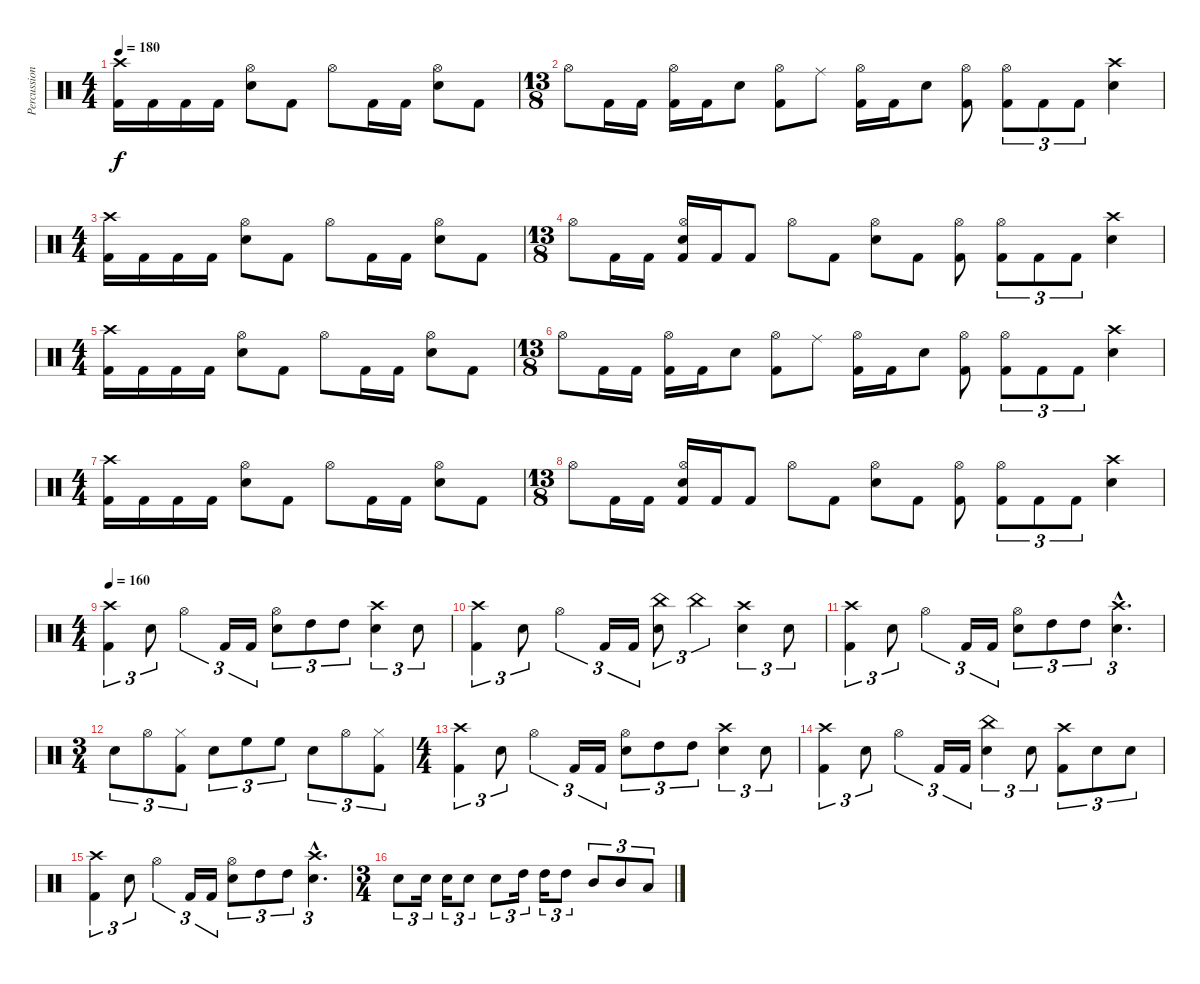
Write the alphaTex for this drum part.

\track ("Percussion" "Percussion") {instrument percussion}
\staff {score}
\articulation defaults
\ts (4 4)
\tempo 180
\clef neutral
\ks c
("Crash high (hit)" "Kick (hit) 2").16{dy f} "Kick (hit) 2".16 "Kick (hit) 2".16 "Kick (hit) 2".16 ("Hi-Hat (open)" "Electric Snare (hit)").8 "Kick (hit) 2".8 "Hi-Hat (open)".8 "Kick (hit) 2".16 "Kick (hit) 2".16 ("Hi-Hat (open)" "Electric Snare (hit)").8 "Kick (hit) 2".8 |
\ts (13 8)
"Hi-Hat (open)".8 "Kick (hit) 2".16 "Kick (hit) 2".16 ("Hi-Hat (open)" "Kick (hit) 2").16 "Kick (hit) 2".16 "Electric Snare (hit)".8 ("Hi-Hat (open)" "Kick (hit) 2").8 "Ride (middle)".8 ("Hi-Hat (open)" "Kick (hit) 2").16 "Kick (hit) 2".16 "Electric Snare (hit)".8 ("Hi-Hat (open)" "Kick (hit) 2").8 ("Hi-Hat (open)" "Kick (hit) 2").8{tu (3 2)} "Kick (hit) 2".8{tu (3 2)} "Kick (hit) 2".8{tu (3 2)} ("Crash high (hit)" "Electric Snare (hit)").4 |
\ts (4 4)
("Crash high (hit)" "Kick (hit) 2").16 "Kick (hit) 2".16 "Kick (hit) 2".16 "Kick (hit) 2".16 ("Hi-Hat (open)" "Electric Snare (hit)").8 "Kick (hit) 2".8 "Hi-Hat (open)".8 "Kick (hit) 2".16 "Kick (hit) 2".16 ("Hi-Hat (open)" "Electric Snare (hit)").8 "Kick (hit) 2".8 |
\ts (13 8)
"Hi-Hat (open)".8 "Kick (hit) 2".16 "Kick (hit) 2".16 ("Hi-Hat (open)" "Electric Snare (hit)" "Kick (hit) 2").16 "Kick (hit) 2".16 "Kick (hit) 2".8 "Hi-Hat (open)".8 "Kick (hit) 2".8 ("Hi-Hat (open)" "Electric Snare (hit)").8 "Kick (hit) 2".8 ("Hi-Hat (open)" "Kick (hit) 2").8 ("Hi-Hat (open)" "Kick (hit) 2").8{tu (3 2)} "Kick (hit) 2".8{tu (3 2)} "Kick (hit) 2".8{tu (3 2)} ("Crash high (hit)" "Electric Snare (hit)").4 |
\ts (4 4)
("Crash high (hit)" "Kick (hit) 2").16 "Kick (hit) 2".16 "Kick (hit) 2".16 "Kick (hit) 2".16 ("Hi-Hat (open)" "Electric Snare (hit)").8 "Kick (hit) 2".8 "Hi-Hat (open)".8 "Kick (hit) 2".16 "Kick (hit) 2".16 ("Hi-Hat (open)" "Electric Snare (hit)").8 "Kick (hit) 2".8 |
\ts (13 8)
"Hi-Hat (open)".8 "Kick (hit) 2".16 "Kick (hit) 2".16 ("Hi-Hat (open)" "Kick (hit) 2").16 "Kick (hit) 2".16 "Electric Snare (hit)".8 ("Hi-Hat (open)" "Kick (hit) 2").8 "Ride (middle)".8 ("Hi-Hat (open)" "Kick (hit) 2").16 "Kick (hit) 2".16 "Electric Snare (hit)".8 ("Hi-Hat (open)" "Kick (hit) 2").8 ("Hi-Hat (open)" "Kick (hit) 2").8{tu (3 2)} "Kick (hit) 2".8{tu (3 2)} "Kick (hit) 2".8{tu (3 2)} ("Crash high (hit)" "Electric Snare (hit)").4 |
\ts (4 4)
("Crash high (hit)" "Kick (hit) 2").16 "Kick (hit) 2".16 "Kick (hit) 2".16 "Kick (hit) 2".16 ("Hi-Hat (open)" "Electric Snare (hit)").8 "Kick (hit) 2".8 "Hi-Hat (open)".8 "Kick (hit) 2".16 "Kick (hit) 2".16 ("Hi-Hat (open)" "Electric Snare (hit)").8 "Kick (hit) 2".8 |
\ts (13 8)
"Hi-Hat (open)".8 "Kick (hit) 2".16 "Kick (hit) 2".16 ("Hi-Hat (open)" "Electric Snare (hit)" "Kick (hit) 2").16 "Kick (hit) 2".16 "Kick (hit) 2".8 "Hi-Hat (open)".8 "Kick (hit) 2".8 ("Hi-Hat (open)" "Electric Snare (hit)").8 "Kick (hit) 2".8 ("Hi-Hat (open)" "Kick (hit) 2").8 ("Hi-Hat (open)" "Kick (hit) 2").8{tu (3 2)} "Kick (hit) 2".8{tu (3 2)} "Kick (hit) 2".8{tu (3 2)} ("Crash high (hit)" "Electric Snare (hit)").4 |
\ts (4 4)
\tempo 160
("Crash high (hit)" "Kick (hit) 2").4{tu (3 2)} "Electric Snare (hit)".8{tu (3 2)} "Hi-Hat (open)".4{tu (3 2)} "Kick (hit) 2".16{tu (3 2)} "Kick (hit) 2".16{tu (3 2)} ("Hi-Hat (open)" "Electric Snare (hit)").8{tu (3 2)} "High Tom (hit)".8{tu (3 2)} "High Tom (hit)".8{tu (3 2)} ("Crash high (hit)" "Electric Snare (hit)").4{tu (3 2)} "Electric Snare (hit)".8{tu (3 2)} |
("Crash high (hit)" "Kick (hit) 2").4{tu (3 2)} "Electric Snare (hit)".8{tu (3 2)} "Hi-Hat (open)".4{tu (3 2)} "Kick (hit) 2".16{tu (3 2)} "Kick (hit) 2".16{tu (3 2)} ("China (hit)" "Electric Snare (hit)").8{tu (3 2)} "China (hit)".4{tu (3 2)} ("Crash high (hit)" "Electric Snare (hit)").4{tu (3 2)} "Electric Snare (hit)".8{tu (3 2)} |
("Crash high (hit)" "Kick (hit) 2").4{tu (3 2)} "Electric Snare (hit)".8{tu (3 2)} "Hi-Hat (open)".4{tu (3 2)} "Kick (hit) 2".16{tu (3 2)} "Kick (hit) 2".16{tu (3 2)} ("Hi-Hat (open)" "Electric Snare (hit)").8{tu (3 2)} "High Tom (hit)".8{tu (3 2)} "High Tom (hit)".8{tu (3 2)} ("Crash high (hit)"{hac} "Electric Snare (hit)"{hac}).4{d tu (3 2)} |
\ts (3 4)
"Electric Snare (hit)".8{tu (3 2)} "Hi-Hat (open)".8{tu (3 2)} ("Hi-Hat (closed)" "Kick (hit) 2").8{tu (3 2)} "Electric Snare (hit)".8{tu (3 2)} "High Floor Tom (hit)".8{tu (3 2)} "High Floor Tom (hit)".8{tu (3 2)} "Electric Snare (hit)".8{tu (3 2)} "Hi-Hat (open)".8{tu (3 2)} ("Hi-Hat (closed)" "Kick (hit) 2").8{tu (3 2)} |
\ts (4 4)
("Crash high (hit)" "Kick (hit) 2").4{tu (3 2)} "Electric Snare (hit)".8{tu (3 2)} "Hi-Hat (open)".4{tu (3 2)} "Kick (hit) 2".16{tu (3 2)} "Kick (hit) 2".16{tu (3 2)} ("Hi-Hat (open)" "Electric Snare (hit)").8{tu (3 2)} "High Tom (hit)".8{tu (3 2)} "High Tom (hit)".8{tu (3 2)} ("Crash high (hit)" "Electric Snare (hit)").4{tu (3 2)} "Electric Snare (hit)".8{tu (3 2)} |
("Crash high (hit)" "Kick (hit) 2").4{tu (3 2)} "Electric Snare (hit)".8{tu (3 2)} "Hi-Hat (open)".4{tu (3 2)} "Kick (hit) 2".16{tu (3 2)} "Kick (hit) 2".16{tu (3 2)} ("China (hit)" "Electric Snare (hit)").4{tu (3 2)} "Electric Snare (hit)".8{tu (3 2)} ("Crash high (hit)" "Kick (hit) 2").8{tu (3 2)} "Electric Snare (hit)".8{tu (3 2)} "Electric Snare (hit)".8{tu (3 2)} |
("Crash high (hit)" "Kick (hit) 2").4{tu (3 2)} "Electric Snare (hit)".8{tu (3 2)} "Hi-Hat (open)".4{tu (3 2)} "Kick (hit) 2".16{tu (3 2)} "Kick (hit) 2".16{tu (3 2)} ("Hi-Hat (open)" "Electric Snare (hit)").8{tu (3 2)} "High Tom (hit)".8{tu (3 2)} "High Tom (hit)".8{tu (3 2)} ("Crash high (hit)"{hac} "Electric Snare (hit)"{hac}).4{d tu (3 2)} |
\ts (3 4)
"Electric Snare (hit)".8{tu (3 2)} "Electric Snare (hit)".16{tu (3 2)} "Electric Snare (hit)".16{tu (3 2)} "Electric Snare (hit)".8{tu (3 2)} "Electric Snare (hit)".8{tu (3 2)} "High Tom (hit)".16{tu (3 2)} "High Tom (hit)".16{tu (3 2)} "High Tom (hit)".8{tu (3 2)} "Mid Tom (hit)".8{tu (3 2)} "Mid Tom (hit)".8{tu (3 2)} "Low Tom (hit)".8{tu (3 2)}
